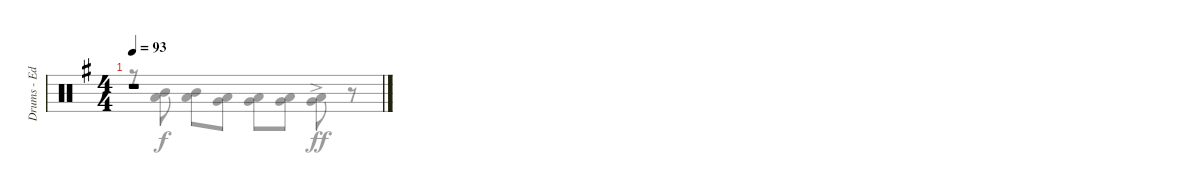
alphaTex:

\track ("Drums - Ed Warby" "Drums - Ed") {instrument percussion}
\staff {score}
\articulation defaults
\voice
\ts (4 4)
\tempo 93
\clef neutral
\ks eminor
r.1{dy f}
\voice
\clef neutral
\ottava regular
\simile none
\ks eminor
r.8{dy f} ("Mid Tom (hit)" "Low Tom (hit)").8 ("Mid Tom (hit)" "Low Tom (hit)").8 ("Low Tom (hit)" "Very Low Tom (hit)").8 ("Low Tom (hit)" "Very Low Tom (hit)").8 ("Very Low Tom (hit)" "Low Floor Tom (hit)").8 ("Very Low Tom (hit)"{ac} "Low Floor Tom (hit)"{ac}).8{dy ff} r.8
